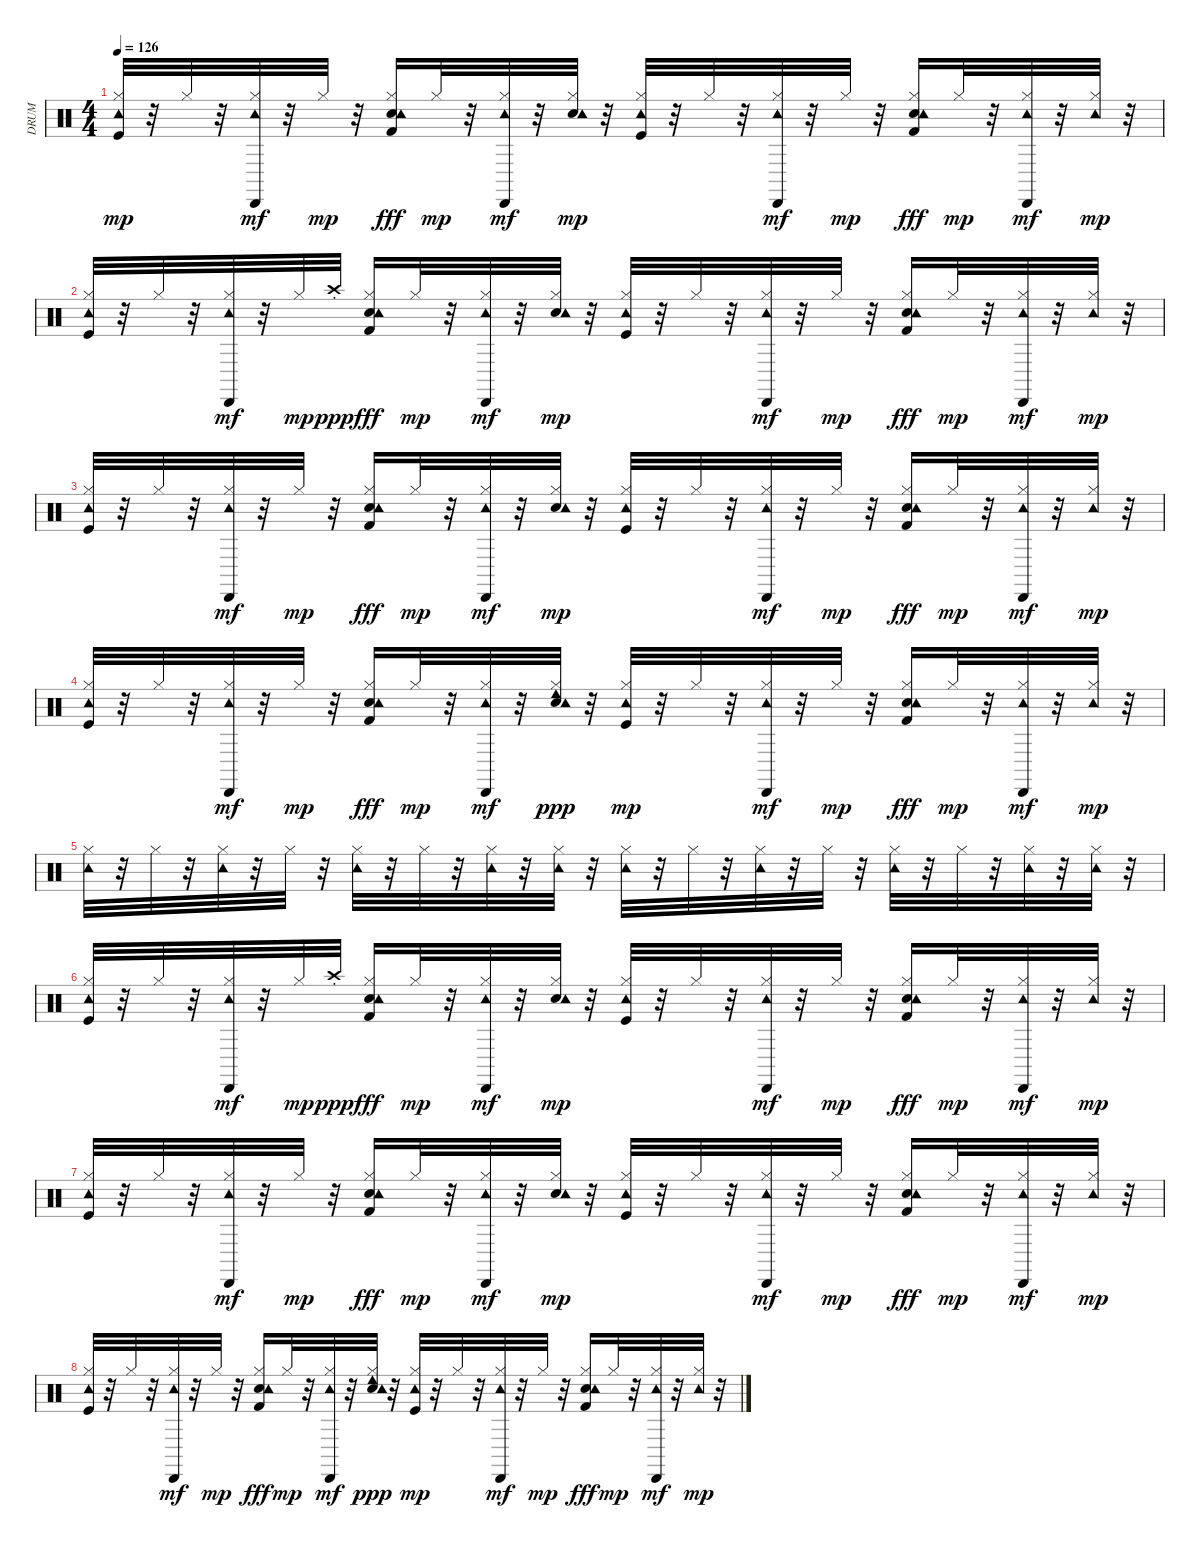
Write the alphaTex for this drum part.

\track ("DRUM" "DRUM") {instrument percussion}
\staff {score}
\articulation defaults
\ts (4 4)
\tempo 126
\clef neutral
\ks c
("Kick (hit)" "Hi-Hat (closed)" "Tambourine (hit)").32{dy mp} r.32 "Hi-Hat (closed)".32 r.32 ("Hi-Hat (closed)" "Tambourine (hit)" "Cabasa (hit)").32{dy mf} r.32 "Hi-Hat (closed)".32{dy mp} r.32 ("Snare (hit) 2" "Hi-Hat (closed)" "Tambourine (hit)" "Kick (hit) 2").16{dy fff} "Hi-Hat (closed)".32{dy mp} r.32 ("Hi-Hat (closed)" "Tambourine (hit)" "Cabasa (hit)").32{dy mf} r.32 ("Snare (hit) 2" "Hi-Hat (closed)" "Tambourine (hit)").32{dy mp} r.32 ("Kick (hit)" "Hi-Hat (closed)" "Tambourine (hit)").32 r.32 "Hi-Hat (closed)".32 r.32 ("Hi-Hat (closed)" "Tambourine (hit)" "Cabasa (hit)").32{dy mf} r.32 "Hi-Hat (closed)".32{dy mp} r.32 ("Snare (hit) 2" "Hi-Hat (closed)" "Tambourine (hit)" "Kick (hit) 2").16{dy fff} "Hi-Hat (closed)".32{dy mp} r.32 ("Hi-Hat (closed)" "Tambourine (hit)" "Cabasa (hit)").32{dy mf} r.32 ("Hi-Hat (closed)" "Tambourine (hit)").32{dy mp} r.32 |
("Kick (hit)" "Hi-Hat (closed)" "Tambourine (hit)").32 r.32 "Hi-Hat (closed)".32 r.32 ("Hi-Hat (closed)" "Tambourine (hit)" "Cabasa (hit)").32{dy mf} r.32 "Hi-Hat (closed)".32{dy mp} "Crash high (choke)".32{dy ppp} ("Snare (hit) 2" "Hi-Hat (closed)" "Tambourine (hit)" "Kick (hit) 2").16{dy fff} "Hi-Hat (closed)".32{dy mp} r.32 ("Hi-Hat (closed)" "Tambourine (hit)" "Cabasa (hit)").32{dy mf} r.32 ("Snare (hit) 2" "Hi-Hat (closed)" "Tambourine (hit)").32{dy mp} r.32 ("Kick (hit)" "Hi-Hat (closed)" "Tambourine (hit)").32 r.32 "Hi-Hat (closed)".32 r.32 ("Hi-Hat (closed)" "Tambourine (hit)" "Cabasa (hit)").32{dy mf} r.32 "Hi-Hat (closed)".32{dy mp} r.32 ("Snare (hit) 2" "Hi-Hat (closed)" "Tambourine (hit)" "Kick (hit) 2").16{dy fff} "Hi-Hat (closed)".32{dy mp} r.32 ("Hi-Hat (closed)" "Tambourine (hit)" "Cabasa (hit)").32{dy mf} r.32 ("Hi-Hat (closed)" "Tambourine (hit)").32{dy mp} r.32 |
("Kick (hit)" "Hi-Hat (closed)" "Tambourine (hit)").32 r.32 "Hi-Hat (closed)".32 r.32 ("Hi-Hat (closed)" "Tambourine (hit)" "Cabasa (hit)").32{dy mf} r.32 "Hi-Hat (closed)".32{dy mp} r.32 ("Snare (hit) 2" "Hi-Hat (closed)" "Tambourine (hit)" "Kick (hit) 2").16{dy fff} "Hi-Hat (closed)".32{dy mp} r.32 ("Hi-Hat (closed)" "Tambourine (hit)" "Cabasa (hit)").32{dy mf} r.32 ("Snare (hit) 2" "Hi-Hat (closed)" "Tambourine (hit)").32{dy mp} r.32 ("Kick (hit)" "Hi-Hat (closed)" "Tambourine (hit)").32 r.32 "Hi-Hat (closed)".32 r.32 ("Hi-Hat (closed)" "Tambourine (hit)" "Cabasa (hit)").32{dy mf} r.32 "Hi-Hat (closed)".32{dy mp} r.32 ("Snare (hit) 2" "Hi-Hat (closed)" "Tambourine (hit)" "Kick (hit) 2").16{dy fff} "Hi-Hat (closed)".32{dy mp} r.32 ("Hi-Hat (closed)" "Tambourine (hit)" "Cabasa (hit)").32{dy mf} r.32 ("Hi-Hat (closed)" "Tambourine (hit)").32{dy mp} r.32 |
("Kick (hit)" "Hi-Hat (closed)" "Tambourine (hit)").32 r.32 "Hi-Hat (closed)".32 r.32 ("Hi-Hat (closed)" "Tambourine (hit)" "Cabasa (hit)").32{dy mf} r.32 "Hi-Hat (closed)".32{dy mp} r.32 ("Snare (hit) 2" "Hi-Hat (closed)" "Tambourine (hit)" "Kick (hit) 2").16{dy fff} "Hi-Hat (closed)".32{dy mp} r.32 ("Hi-Hat (closed)" "Tambourine (hit)" "Cabasa (hit)").32{dy mf} r.32 ("Snare (hit) 2" "Hi-Hat (closed)" "Tambourine (hit)" "Cowbell low (hit)").32{dy ppp} r.32 ("Kick (hit)" "Hi-Hat (closed)" "Tambourine (hit)").32{dy mp} r.32 "Hi-Hat (closed)".32 r.32 ("Hi-Hat (closed)" "Tambourine (hit)" "Cabasa (hit)").32{dy mf} r.32 "Hi-Hat (closed)".32{dy mp} r.32 ("Snare (hit) 2" "Hi-Hat (closed)" "Tambourine (hit)" "Kick (hit) 2").16{dy fff} "Hi-Hat (closed)".32{dy mp} r.32 ("Hi-Hat (closed)" "Tambourine (hit)" "Cabasa (hit)").32{dy mf} r.32 ("Hi-Hat (closed)" "Tambourine (hit)").32{dy mp} r.32 |
("Hi-Hat (closed)" "Tambourine (hit)").32 r.32 "Hi-Hat (closed)".32 r.32 ("Hi-Hat (closed)" "Tambourine (hit)").32 r.32 "Hi-Hat (closed)".32 r.32 ("Hi-Hat (closed)" "Tambourine (hit)").32 r.32 "Hi-Hat (closed)".32 r.32 ("Hi-Hat (closed)" "Tambourine (hit)").32 r.32 ("Hi-Hat (closed)" "Tambourine (hit)").32 r.32 ("Hi-Hat (closed)" "Tambourine (hit)").32 r.32 "Hi-Hat (closed)".32 r.32 ("Hi-Hat (closed)" "Tambourine (hit)").32 r.32 "Hi-Hat (closed)".32 r.32 ("Hi-Hat (closed)" "Tambourine (hit)").32 r.32 "Hi-Hat (closed)".32 r.32 ("Hi-Hat (closed)" "Tambourine (hit)").32 r.32 ("Hi-Hat (closed)" "Tambourine (hit)").32 r.32 |
("Kick (hit)" "Hi-Hat (closed)" "Tambourine (hit)").32 r.32 "Hi-Hat (closed)".32 r.32 ("Hi-Hat (closed)" "Tambourine (hit)" "Cabasa (hit)").32{dy mf} r.32 "Hi-Hat (closed)".32{dy mp} "Crash high (choke)".32{dy ppp} ("Snare (hit) 2" "Hi-Hat (closed)" "Tambourine (hit)" "Kick (hit) 2").16{dy fff} "Hi-Hat (closed)".32{dy mp} r.32 ("Hi-Hat (closed)" "Tambourine (hit)" "Cabasa (hit)").32{dy mf} r.32 ("Snare (hit) 2" "Hi-Hat (closed)" "Tambourine (hit)").32{dy mp} r.32 ("Kick (hit)" "Hi-Hat (closed)" "Tambourine (hit)").32 r.32 "Hi-Hat (closed)".32 r.32 ("Hi-Hat (closed)" "Tambourine (hit)" "Cabasa (hit)").32{dy mf} r.32 "Hi-Hat (closed)".32{dy mp} r.32 ("Snare (hit) 2" "Hi-Hat (closed)" "Tambourine (hit)" "Kick (hit) 2").16{dy fff} "Hi-Hat (closed)".32{dy mp} r.32 ("Hi-Hat (closed)" "Tambourine (hit)" "Cabasa (hit)").32{dy mf} r.32 ("Hi-Hat (closed)" "Tambourine (hit)").32{dy mp} r.32 |
("Kick (hit)" "Hi-Hat (closed)" "Tambourine (hit)").32 r.32 "Hi-Hat (closed)".32 r.32 ("Hi-Hat (closed)" "Tambourine (hit)" "Cabasa (hit)").32{dy mf} r.32 "Hi-Hat (closed)".32{dy mp} r.32 ("Snare (hit) 2" "Hi-Hat (closed)" "Tambourine (hit)" "Kick (hit) 2").16{dy fff} "Hi-Hat (closed)".32{dy mp} r.32 ("Hi-Hat (closed)" "Tambourine (hit)" "Cabasa (hit)").32{dy mf} r.32 ("Snare (hit) 2" "Hi-Hat (closed)" "Tambourine (hit)").32{dy mp} r.32 ("Kick (hit)" "Hi-Hat (closed)" "Tambourine (hit)").32 r.32 "Hi-Hat (closed)".32 r.32 ("Hi-Hat (closed)" "Tambourine (hit)" "Cabasa (hit)").32{dy mf} r.32 "Hi-Hat (closed)".32{dy mp} r.32 ("Snare (hit) 2" "Hi-Hat (closed)" "Tambourine (hit)" "Kick (hit) 2").16{dy fff} "Hi-Hat (closed)".32{dy mp} r.32 ("Hi-Hat (closed)" "Tambourine (hit)" "Cabasa (hit)").32{dy mf} r.32 ("Hi-Hat (closed)" "Tambourine (hit)").32{dy mp} r.32 |
("Kick (hit)" "Hi-Hat (closed)" "Tambourine (hit)").32 r.32 "Hi-Hat (closed)".32 r.32 ("Hi-Hat (closed)" "Tambourine (hit)" "Cabasa (hit)").32{dy mf} r.32 "Hi-Hat (closed)".32{dy mp} r.32 ("Snare (hit) 2" "Hi-Hat (closed)" "Tambourine (hit)" "Kick (hit) 2").16{dy fff} "Hi-Hat (closed)".32{dy mp} r.32 ("Hi-Hat (closed)" "Tambourine (hit)" "Cabasa (hit)").32{dy mf} r.32 ("Snare (hit) 2" "Hi-Hat (closed)" "Tambourine (hit)" "Cowbell low (hit)").32{dy ppp} r.32 ("Kick (hit)" "Hi-Hat (closed)" "Tambourine (hit)").32{dy mp} r.32 "Hi-Hat (closed)".32 r.32 ("Hi-Hat (closed)" "Tambourine (hit)" "Cabasa (hit)").32{dy mf} r.32 "Hi-Hat (closed)".32{dy mp} r.32 ("Snare (hit) 2" "Hi-Hat (closed)" "Tambourine (hit)" "Kick (hit) 2").16{dy fff} "Hi-Hat (closed)".32{dy mp} r.32 ("Hi-Hat (closed)" "Tambourine (hit)" "Cabasa (hit)").32{dy mf} r.32 ("Hi-Hat (closed)" "Tambourine (hit)").32{dy mp} r.32
